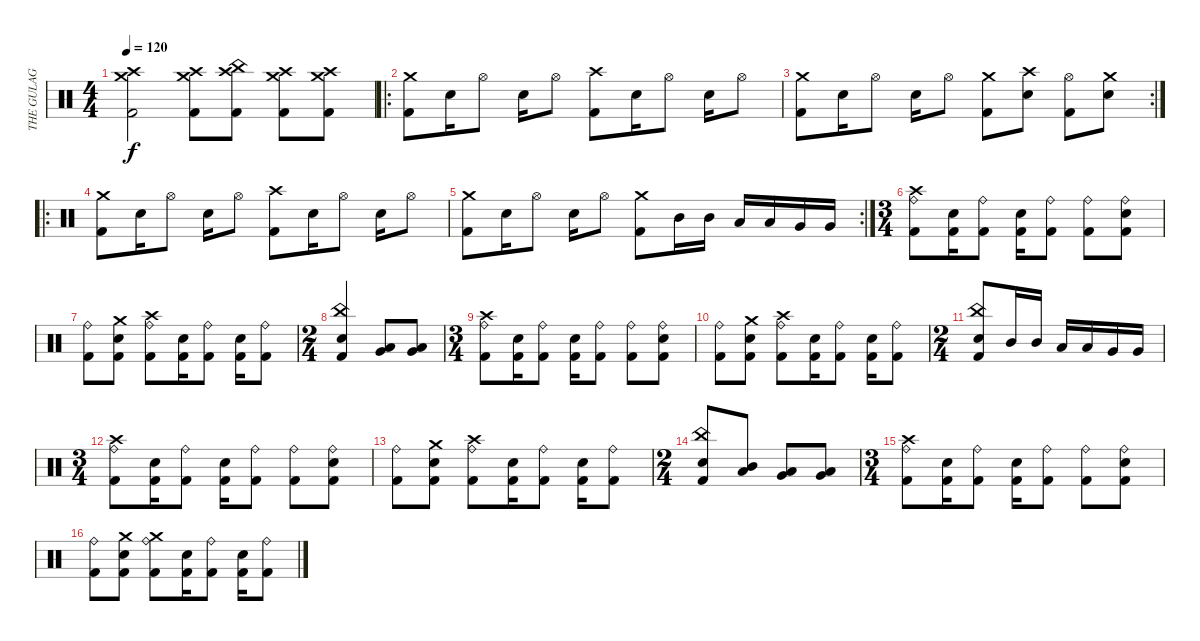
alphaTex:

\track ("THE GULAG" "THE GULAG") {instrument percussion}
\staff {score}
\articulation defaults
\ts (4 4)
\tempo 120
\clef neutral
\ks c
("Crash medium (hit)" "Crash high (hit)" "Kick (hit) 2").2{dy f} ("Crash medium (hit)" "Crash high (hit)" "Kick (hit) 2").8 ("Crash high (hit)" "China (hit)" "Kick (hit) 2").8 ("Crash medium (hit)" "Crash high (hit)" "Kick (hit) 2").8 ("Crash medium (hit)" "Crash high (hit)" "Kick (hit) 2").8 |
\ro
("Crash medium (hit)" "Kick (hit) 2").8 "Snare (hit) 2".16 "Hi-Hat (open)".8 "Snare (hit) 2".16 "Hi-Hat (open)".8 ("Crash high (hit)" "Kick (hit) 2").8 "Snare (hit) 2".16 "Hi-Hat (open)".8 "Snare (hit) 2".16 "Hi-Hat (open)".8 |
\rc 2
("Crash medium (hit)" "Kick (hit) 2").8 "Snare (hit) 2".16 "Hi-Hat (open)".8 "Snare (hit) 2".16 "Hi-Hat (open)".8 ("Crash medium (hit)" "Kick (hit) 2").8 ("Crash high (hit)" "Snare (hit) 2").8 ("Hi-Hat (open)" "Kick (hit) 2").8 ("Crash medium (hit)" "Snare (hit) 2").8 |
\ro
("Crash medium (hit)" "Kick (hit) 2").8 "Snare (hit) 2".16 "Hi-Hat (open)".8 "Snare (hit) 2".16 "Hi-Hat (open)".8 ("Crash high (hit)" "Kick (hit) 2").8 "Snare (hit) 2".16 "Hi-Hat (open)".8 "Snare (hit) 2".16 "Hi-Hat (open)".8 |
\rc 2
("Crash medium (hit)" "Kick (hit) 2").8 "Snare (hit) 2".16 "Hi-Hat (open)".8 "Snare (hit) 2".16 "Hi-Hat (open)".8 ("Crash medium (hit)" "Kick (hit) 2").8 "Mid Tom (hit)".16 "Mid Tom (hit)".16 "Low Tom (hit)".16 "Low Tom (hit)".16 "Very Low Tom (hit)".16 "Very Low Tom (hit)".16 |
\ts (3 4)
("Crash high (hit)" "Ride (bell)" "Kick (hit) 2").8 ("Snare (hit) 2" "Kick (hit) 2").16 ("Ride (bell)" "Kick (hit) 2").8 ("Snare (hit) 2" "Kick (hit) 2").16 ("Ride (bell)" "Kick (hit) 2").8 ("Ride (bell)" "Kick (hit) 2").8 ("Ride (bell)" "Snare (hit) 2" "Kick (hit) 2").8 |
("Ride (bell)" "Kick (hit) 2").8 ("Crash medium (hit)" "Snare (hit) 2" "Kick (hit) 2").8 ("Crash high (hit)" "Ride (bell)" "Kick (hit) 2").8 ("Snare (hit) 2" "Kick (hit) 2").16 ("Ride (bell)" "Kick (hit) 2").8 ("Snare (hit) 2" "Kick (hit) 2").16 ("Ride (bell)" "Kick (hit) 2").8 |
\ts (2 4)
("China (hit)" "Snare (hit) 2" "Kick (hit) 2").4 ("Low Tom (hit)" "Very Low Tom (hit)").8 ("Very Low Tom (hit)" "Low Floor Tom (hit)").8 |
\ts (3 4)
("Crash high (hit)" "Ride (bell)" "Kick (hit) 2").8 ("Snare (hit) 2" "Kick (hit) 2").16 ("Ride (bell)" "Kick (hit) 2").8 ("Snare (hit) 2" "Kick (hit) 2").16 ("Ride (bell)" "Kick (hit) 2").8 ("Ride (bell)" "Kick (hit) 2").8 ("Ride (bell)" "Snare (hit) 2" "Kick (hit) 2").8 |
("Ride (bell)" "Kick (hit) 2").8 ("Crash medium (hit)" "Snare (hit) 2" "Kick (hit) 2").8 ("Crash high (hit)" "Ride (bell)" "Kick (hit) 2").8 ("Snare (hit) 2" "Kick (hit) 2").16 ("Ride (bell)" "Kick (hit) 2").8 ("Snare (hit) 2" "Kick (hit) 2").16 ("Ride (bell)" "Kick (hit) 2").8 |
\ts (2 4)
("China (hit)" "Snare (hit) 2" "Kick (hit) 2").8 "Mid Tom (hit)".16 "Mid Tom (hit)".16 "Low Tom (hit)".16 "Low Tom (hit)".16 "Very Low Tom (hit)".16 "Very Low Tom (hit)".16 |
\ts (3 4)
("Crash high (hit)" "Ride (bell)" "Kick (hit) 2").8 ("Snare (hit) 2" "Kick (hit) 2").16 ("Ride (bell)" "Kick (hit) 2").8 ("Snare (hit) 2" "Kick (hit) 2").16 ("Ride (bell)" "Kick (hit) 2").8 ("Ride (bell)" "Kick (hit) 2").8 ("Ride (bell)" "Snare (hit) 2" "Kick (hit) 2").8 |
("Ride (bell)" "Kick (hit) 2").8 ("Crash medium (hit)" "Snare (hit) 2" "Kick (hit) 2").8 ("Crash high (hit)" "Ride (bell)" "Kick (hit) 2").8 ("Snare (hit) 2" "Kick (hit) 2").16 ("Ride (bell)" "Kick (hit) 2").8 ("Snare (hit) 2" "Kick (hit) 2").16 ("Ride (bell)" "Kick (hit) 2").8 |
\ts (2 4)
("China (hit)" "Snare (hit) 2" "Kick (hit) 2").8 ("Mid Tom (hit)" "Low Tom (hit)").8 ("Low Tom (hit)" "Very Low Tom (hit)").8 ("Very Low Tom (hit)" "Low Floor Tom (hit)").8 |
\ts (3 4)
("Crash high (hit)" "Ride (bell)" "Kick (hit) 2").8 ("Snare (hit) 2" "Kick (hit) 2").16 ("Ride (bell)" "Kick (hit) 2").8 ("Snare (hit) 2" "Kick (hit) 2").16 ("Ride (bell)" "Kick (hit) 2").8 ("Ride (bell)" "Kick (hit) 2").8 ("Ride (bell)" "Snare (hit) 2" "Kick (hit) 2").8 |
("Ride (bell)" "Kick (hit) 2").8 ("Crash medium (hit)" "Snare (hit) 2" "Kick (hit) 2").8 ("Crash medium (hit)" "Ride (bell)" "Kick (hit) 2").8 ("Snare (hit) 2" "Kick (hit) 2").16 ("Ride (bell)" "Kick (hit) 2").8 ("Snare (hit) 2" "Kick (hit) 2").16 ("Ride (bell)" "Kick (hit) 2").8
